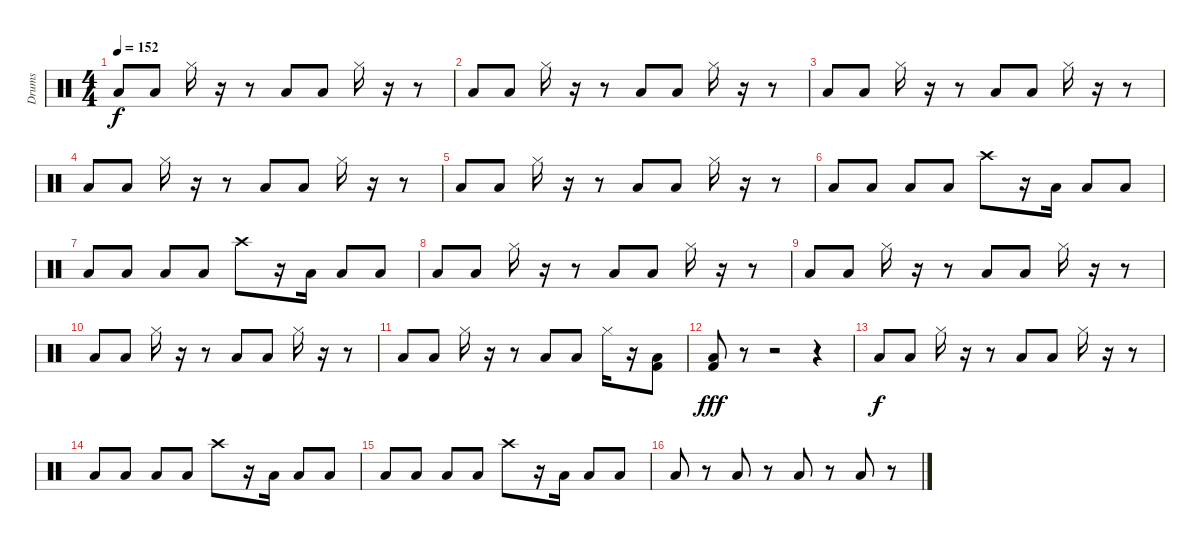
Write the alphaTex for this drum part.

\track ("Drums" "Drums") {instrument percussion}
\staff {score}
\articulation defaults
\ts (4 4)
\tempo 152
\clef neutral
\ks c "Low Tom (hit)".8{dy f} "Low Tom (hit)".8 "Hi-Hat (closed)".16
r.16 r.8 "Low Tom (hit)".8 "Low Tom (hit)".8 "Hi-Hat (closed)".16 r.16 r.8 |
"Low Tom (hit)".8 "Low Tom (hit)".8 "Hi-Hat (closed)".16 r.16 r.8 "Low Tom (hit)".8 "Low Tom (hit)".8 "Hi-Hat (closed)".16 r.16 r.8 |
"Low Tom (hit)".8 "Low Tom (hit)".8 "Hi-Hat (closed)".16 r.16 r.8 "Low Tom (hit)".8 "Low Tom (hit)".8 "Hi-Hat (closed)".16 r.16 r.8 |
"Low Tom (hit)".8 "Low Tom (hit)".8 "Hi-Hat (closed)".16 r.16 r.8 "Low Tom (hit)".8 "Low Tom (hit)".8 "Hi-Hat (closed)".16 r.16 r.8 |
"Low Tom (hit)".8 "Low Tom (hit)".8 "Hi-Hat (closed)".16 r.16 r.8 "Low Tom (hit)".8 "Low Tom (hit)".8 "Hi-Hat (closed)".16 r.16 r.8 |
"Low Tom (hit)".8 "Low Tom (hit)".8 "Low Tom (hit)".8 "Low Tom (hit)".8 "Crash high (hit)".8 r.16 "Low Tom (hit)".16 "Low Tom (hit)".8 "Low Tom (hit)".8 |
"Low Tom (hit)".8 "Low Tom (hit)".8 "Low Tom (hit)".8 "Low Tom (hit)".8 "Crash high (hit)".8 r.16 "Low Tom (hit)".16 "Low Tom (hit)".8 "Low Tom (hit)".8 |
"Low Tom (hit)".8 "Low Tom (hit)".8 "Hi-Hat (closed)".16 r.16 r.8 "Low Tom (hit)".8 "Low Tom (hit)".8 "Hi-Hat (closed)".16 r.16 r.8 |
"Low Tom (hit)".8 "Low Tom (hit)".8 "Hi-Hat (closed)".16 r.16 r.8 "Low Tom (hit)".8 "Low Tom (hit)".8 "Hi-Hat (closed)".16 r.16 r.8 |
"Low Tom (hit)".8 "Low Tom (hit)".8 "Hi-Hat (closed)".16 r.16 r.8 "Low Tom (hit)".8 "Low Tom (hit)".8 "Hi-Hat (closed)".16 r.16 r.8 |
"Low Tom (hit)".8 "Low Tom (hit)".8 "Hi-Hat (closed)".16 r.16 r.8 "Low Tom (hit)".8 "Low Tom (hit)".8 "Hi-Hat (closed)".16 r.16 ("Kick (hit) 2" "Low Tom (hit)").8 |
("Kick (hit) 2" "Low Tom (hit)").8{dy fff} r.8 r.2 r.4 |
"Low Tom (hit)".8{dy f} "Low Tom (hit)".8 "Hi-Hat (closed)".16 r.16 r.8 "Low Tom (hit)".8 "Low Tom (hit)".8 "Hi-Hat (closed)".16 r.16 r.8 |
"Low Tom (hit)".8 "Low Tom (hit)".8 "Low Tom (hit)".8 "Low Tom (hit)".8 "Crash high (hit)".8 r.16 "Low Tom (hit)".16 "Low Tom (hit)".8 "Low Tom (hit)".8 |
"Low Tom (hit)".8 "Low Tom (hit)".8 "Low Tom (hit)".8 "Low Tom (hit)".8 "Crash high (hit)".8 r.16 "Low Tom (hit)".16 "Low Tom (hit)".8 "Low Tom (hit)".8 |
"Low Tom (hit)".8 r.8 "Low Tom (hit)".8 r.8 "Low Tom (hit)".8 r.8 "Low Tom (hit)".8 r.8
